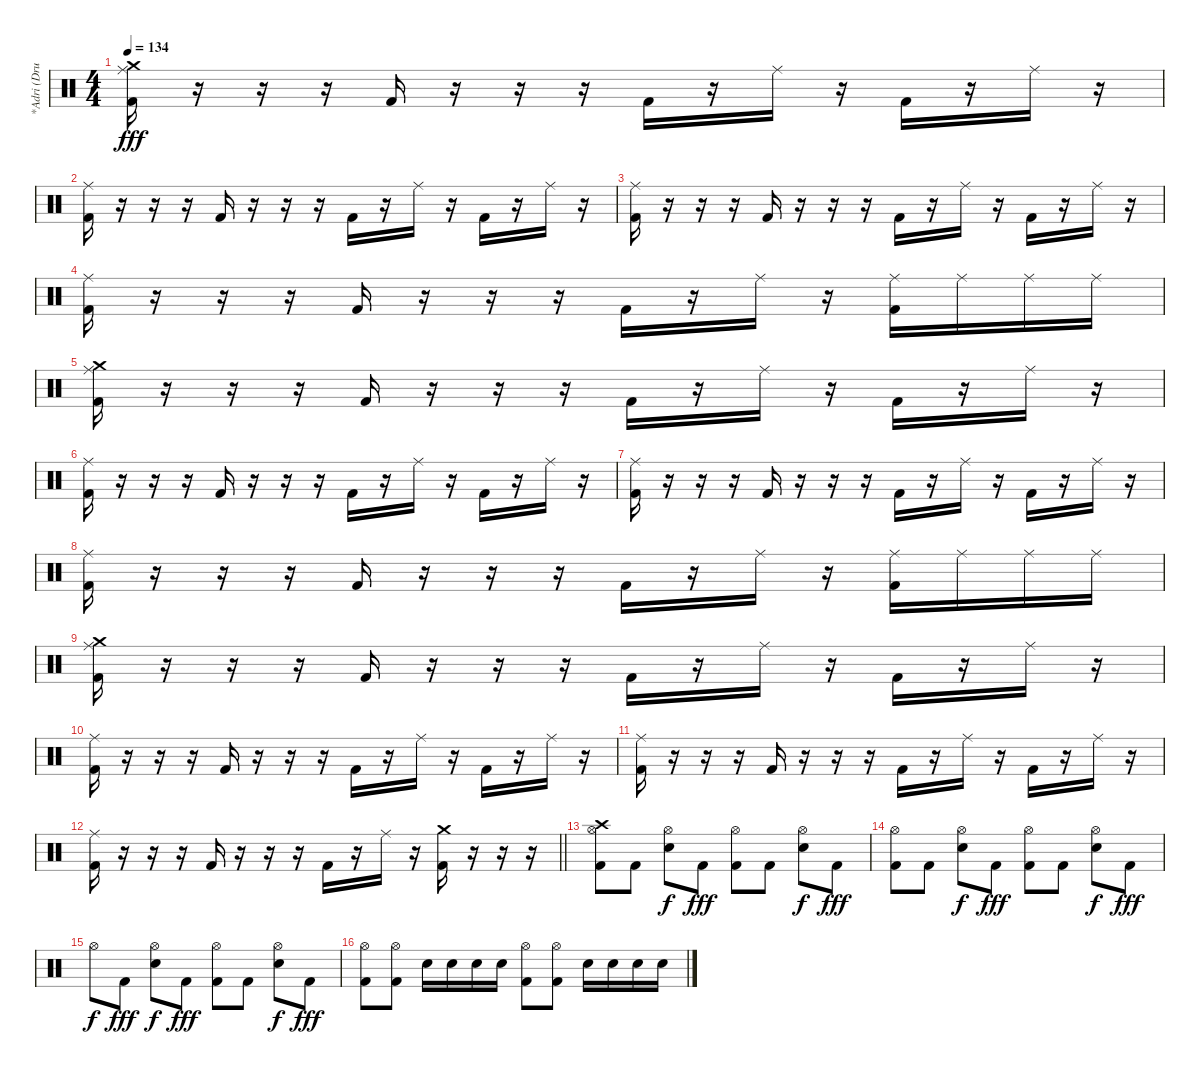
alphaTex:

\track ("*Adri (Drum)" "*Adri (Dru") {instrument percussion}
\staff {score}
\articulation defaults
\ts (4 4)
\tempo 134
\clef neutral
\ks c
("Crash medium (hit)" "Ride (middle)" "Kick (hit) 2").16{dy fff} r.16 r.16 r.16 "Kick (hit) 2".16 r.16 r.16 r.16 "Kick (hit) 2".16 r.16 "Ride (middle)".16 r.16 "Kick (hit) 2".16 r.16 "Ride (middle)".16 r.16 |
("Ride (middle)" "Kick (hit) 2").16 r.16 r.16 r.16 "Kick (hit) 2".16 r.16 r.16 r.16 "Kick (hit) 2".16 r.16 "Ride (middle)".16 r.16 "Kick (hit) 2".16 r.16 "Ride (middle)".16 r.16 |
("Ride (middle)" "Kick (hit) 2").16 r.16 r.16 r.16 "Kick (hit) 2".16 r.16 r.16 r.16 "Kick (hit) 2".16 r.16 "Ride (middle)".16 r.16 "Kick (hit) 2".16 r.16 "Ride (middle)".16 r.16 |
("Ride (middle)" "Kick (hit) 2").16 r.16 r.16 r.16 "Kick (hit) 2".16 r.16 r.16 r.16 "Kick (hit) 2".16 r.16 "Ride (middle)".16 r.16 ("Ride (middle)" "Kick (hit) 2").16 "Ride (middle)".16 "Ride (middle)".16 "Ride (middle)".16 |
("Crash medium (hit)" "Ride (middle)" "Kick (hit) 2").16 r.16 r.16 r.16 "Kick (hit) 2".16 r.16 r.16 r.16 "Kick (hit) 2".16 r.16 "Ride (middle)".16 r.16 "Kick (hit) 2".16 r.16 "Ride (middle)".16 r.16 |
("Ride (middle)" "Kick (hit) 2").16 r.16 r.16 r.16 "Kick (hit) 2".16 r.16 r.16 r.16 "Kick (hit) 2".16 r.16 "Ride (middle)".16 r.16 "Kick (hit) 2".16 r.16 "Ride (middle)".16 r.16 |
("Ride (middle)" "Kick (hit) 2").16 r.16 r.16 r.16 "Kick (hit) 2".16 r.16 r.16 r.16 "Kick (hit) 2".16 r.16 "Ride (middle)".16 r.16 "Kick (hit) 2".16 r.16 "Ride (middle)".16 r.16 |
("Ride (middle)" "Kick (hit) 2").16 r.16 r.16 r.16 "Kick (hit) 2".16 r.16 r.16 r.16 "Kick (hit) 2".16 r.16 "Ride (middle)".16 r.16 ("Ride (middle)" "Kick (hit) 2").16 "Ride (middle)".16 "Ride (middle)".16 "Ride (middle)".16 |
("Crash medium (hit)" "Ride (middle)" "Kick (hit) 2").16 r.16 r.16 r.16 "Kick (hit) 2".16 r.16 r.16 r.16 "Kick (hit) 2".16 r.16 "Ride (middle)".16 r.16 "Kick (hit) 2".16 r.16 "Ride (middle)".16 r.16 |
("Ride (middle)" "Kick (hit) 2").16 r.16 r.16 r.16 "Kick (hit) 2".16 r.16 r.16 r.16 "Kick (hit) 2".16 r.16 "Ride (middle)".16 r.16 "Kick (hit) 2".16 r.16 "Ride (middle)".16 r.16 |
("Ride (middle)" "Kick (hit) 2").16 r.16 r.16 r.16 "Kick (hit) 2".16 r.16 r.16 r.16 "Kick (hit) 2".16 r.16 "Ride (middle)".16 r.16 "Kick (hit) 2".16 r.16 "Ride (middle)".16 r.16 |
\barLineRight lightlight
("Ride (middle)" "Kick (hit) 2").16 r.16 r.16 r.16 "Kick (hit) 2".16 r.16 r.16 r.16 "Kick (hit) 2".16 r.16 "Ride (middle)".16 r.16 ("Crash medium (hit)" "Kick (hit) 2").16 r.16 r.16 r.16 |
\section ("" "")
("Crash high (hit)" "Hi-Hat (open)" "Kick (hit) 2").8 "Kick (hit) 2".8 ("Hi-Hat (open)" "Snare (hit) 2").8{dy f} "Kick (hit) 2".8{dy fff} ("Hi-Hat (open)" "Kick (hit) 2").8 "Kick (hit) 2".8 ("Hi-Hat (open)" "Snare (hit) 2").8{dy f} "Kick (hit) 2".8{dy fff} |
("Hi-Hat (open)" "Kick (hit) 2").8 "Kick (hit) 2".8 ("Hi-Hat (open)" "Snare (hit) 2").8{dy f} "Kick (hit) 2".8{dy fff} ("Hi-Hat (open)" "Kick (hit) 2").8 "Kick (hit) 2".8 ("Hi-Hat (open)" "Snare (hit) 2").8{dy f} "Kick (hit) 2".8{dy fff} |
"Hi-Hat (open)".8{dy f} "Kick (hit) 2".8{dy fff} ("Hi-Hat (open)" "Snare (hit) 2").8{dy f} "Kick (hit) 2".8{dy fff} ("Hi-Hat (open)" "Kick (hit) 2").8 "Kick (hit) 2".8 ("Hi-Hat (open)" "Snare (hit) 2").8{dy f} "Kick (hit) 2".8{dy fff} |
("Hi-Hat (open)" "Kick (hit) 2").8 ("Hi-Hat (open)" "Kick (hit) 2").8 "Snare (hit) 2".16 "Snare (hit) 2".16 "Snare (hit) 2".16 "Snare (hit) 2".16 ("Hi-Hat (open)" "Kick (hit) 2").8 ("Hi-Hat (open)" "Kick (hit) 2").8 "Snare (hit) 2".16 "Snare (hit) 2".16 "Snare (hit) 2".16 "Snare (hit) 2".16
